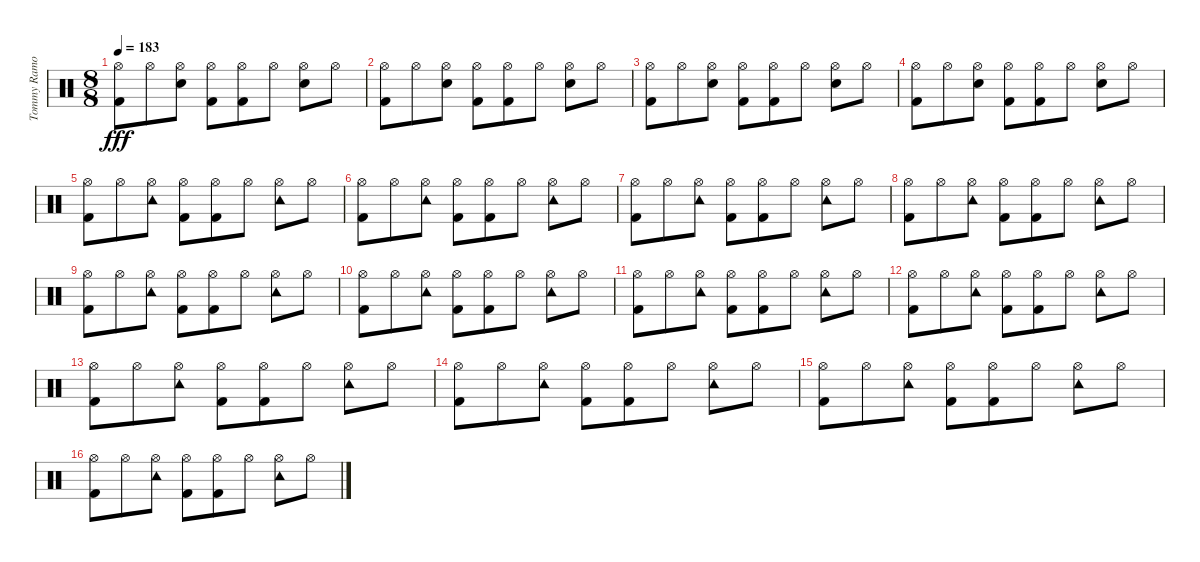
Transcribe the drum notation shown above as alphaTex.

\track ("Tommy Ramone - Drums" "Tommy Ramo") {instrument percussion}
\staff {score}
\articulation defaults
\ts (8 8)
\tempo 183
\clef neutral
\ks c
("Kick (hit) 2" "Hi-Hat (open)").8{dy fff} "Hi-Hat (open)".8 ("Snare (hit) 2" "Hi-Hat (open)").8 ("Kick (hit) 2" "Hi-Hat (open)").8 ("Kick (hit) 2" "Hi-Hat (open)").8 "Hi-Hat (open)".8 ("Snare (hit) 2" "Hi-Hat (open)").8 "Hi-Hat (open)".8 |
("Kick (hit) 2" "Hi-Hat (open)").8 "Hi-Hat (open)".8 ("Snare (hit) 2" "Hi-Hat (open)").8 ("Kick (hit) 2" "Hi-Hat (open)").8 ("Kick (hit) 2" "Hi-Hat (open)").8 "Hi-Hat (open)".8 ("Snare (hit) 2" "Hi-Hat (open)").8 "Hi-Hat (open)".8 |
("Kick (hit) 2" "Hi-Hat (open)").8 "Hi-Hat (open)".8 ("Snare (hit) 2" "Hi-Hat (open)").8 ("Kick (hit) 2" "Hi-Hat (open)").8 ("Kick (hit) 2" "Hi-Hat (open)").8 "Hi-Hat (open)".8 ("Snare (hit) 2" "Hi-Hat (open)").8 "Hi-Hat (open)".8 |
("Kick (hit) 2" "Hi-Hat (open)").8 "Hi-Hat (open)".8 ("Snare (hit) 2" "Hi-Hat (open)").8 ("Kick (hit) 2" "Hi-Hat (open)").8 ("Kick (hit) 2" "Hi-Hat (open)").8 "Hi-Hat (open)".8 ("Snare (hit) 2" "Hi-Hat (open)").8 "Hi-Hat (open)".8 |
("Kick (hit) 2" "Hi-Hat (open)").8 "Hi-Hat (open)".8 ("Tambourine (hit)" "Hi-Hat (open)").8 ("Kick (hit) 2" "Hi-Hat (open)").8 ("Kick (hit) 2" "Hi-Hat (open)").8 "Hi-Hat (open)".8 ("Tambourine (hit)" "Hi-Hat (open)").8 "Hi-Hat (open)".8 |
("Kick (hit) 2" "Hi-Hat (open)").8 "Hi-Hat (open)".8 ("Tambourine (hit)" "Hi-Hat (open)").8 ("Kick (hit) 2" "Hi-Hat (open)").8 ("Kick (hit) 2" "Hi-Hat (open)").8 "Hi-Hat (open)".8 ("Tambourine (hit)" "Hi-Hat (open)").8 "Hi-Hat (open)".8 |
("Kick (hit) 2" "Hi-Hat (open)").8 "Hi-Hat (open)".8 ("Tambourine (hit)" "Hi-Hat (open)").8 ("Kick (hit) 2" "Hi-Hat (open)").8 ("Kick (hit) 2" "Hi-Hat (open)").8 "Hi-Hat (open)".8 ("Tambourine (hit)" "Hi-Hat (open)").8 "Hi-Hat (open)".8 |
("Kick (hit) 2" "Hi-Hat (open)").8 "Hi-Hat (open)".8 ("Tambourine (hit)" "Hi-Hat (open)").8 ("Kick (hit) 2" "Hi-Hat (open)").8 ("Kick (hit) 2" "Hi-Hat (open)").8 "Hi-Hat (open)".8 ("Tambourine (hit)" "Hi-Hat (open)").8 "Hi-Hat (open)".8 |
("Kick (hit) 2" "Hi-Hat (open)").8 "Hi-Hat (open)".8 ("Tambourine (hit)" "Hi-Hat (open)").8 ("Kick (hit) 2" "Hi-Hat (open)").8 ("Kick (hit) 2" "Hi-Hat (open)").8 "Hi-Hat (open)".8 ("Tambourine (hit)" "Hi-Hat (open)").8 "Hi-Hat (open)".8 |
("Kick (hit) 2" "Hi-Hat (open)").8 "Hi-Hat (open)".8 ("Tambourine (hit)" "Hi-Hat (open)").8 ("Kick (hit) 2" "Hi-Hat (open)").8 ("Kick (hit) 2" "Hi-Hat (open)").8 "Hi-Hat (open)".8 ("Tambourine (hit)" "Hi-Hat (open)").8 "Hi-Hat (open)".8 |
("Kick (hit) 2" "Hi-Hat (open)").8 "Hi-Hat (open)".8 ("Tambourine (hit)" "Hi-Hat (open)").8 ("Kick (hit) 2" "Hi-Hat (open)").8 ("Kick (hit) 2" "Hi-Hat (open)").8 "Hi-Hat (open)".8 ("Tambourine (hit)" "Hi-Hat (open)").8 "Hi-Hat (open)".8 |
("Kick (hit) 2" "Hi-Hat (open)").8 "Hi-Hat (open)".8 ("Tambourine (hit)" "Hi-Hat (open)").8 ("Kick (hit) 2" "Hi-Hat (open)").8 ("Kick (hit) 2" "Hi-Hat (open)").8 "Hi-Hat (open)".8 ("Tambourine (hit)" "Hi-Hat (open)").8 "Hi-Hat (open)".8 |
("Kick (hit) 2" "Hi-Hat (open)").8 "Hi-Hat (open)".8 ("Tambourine (hit)" "Hi-Hat (open)").8 ("Kick (hit) 2" "Hi-Hat (open)").8 ("Kick (hit) 2" "Hi-Hat (open)").8 "Hi-Hat (open)".8 ("Tambourine (hit)" "Hi-Hat (open)").8 "Hi-Hat (open)".8 |
("Kick (hit) 2" "Hi-Hat (open)").8 "Hi-Hat (open)".8 ("Tambourine (hit)" "Hi-Hat (open)").8 ("Kick (hit) 2" "Hi-Hat (open)").8 ("Kick (hit) 2" "Hi-Hat (open)").8 "Hi-Hat (open)".8 ("Tambourine (hit)" "Hi-Hat (open)").8 "Hi-Hat (open)".8 |
("Kick (hit) 2" "Hi-Hat (open)").8 "Hi-Hat (open)".8 ("Tambourine (hit)" "Hi-Hat (open)").8 ("Kick (hit) 2" "Hi-Hat (open)").8 ("Kick (hit) 2" "Hi-Hat (open)").8 "Hi-Hat (open)".8 ("Tambourine (hit)" "Hi-Hat (open)").8 "Hi-Hat (open)".8 |
("Kick (hit) 2" "Hi-Hat (open)").8 "Hi-Hat (open)".8 ("Tambourine (hit)" "Hi-Hat (open)").8 ("Kick (hit) 2" "Hi-Hat (open)").8 ("Kick (hit) 2" "Hi-Hat (open)").8 "Hi-Hat (open)".8 ("Tambourine (hit)" "Hi-Hat (open)").8 "Hi-Hat (open)".8
